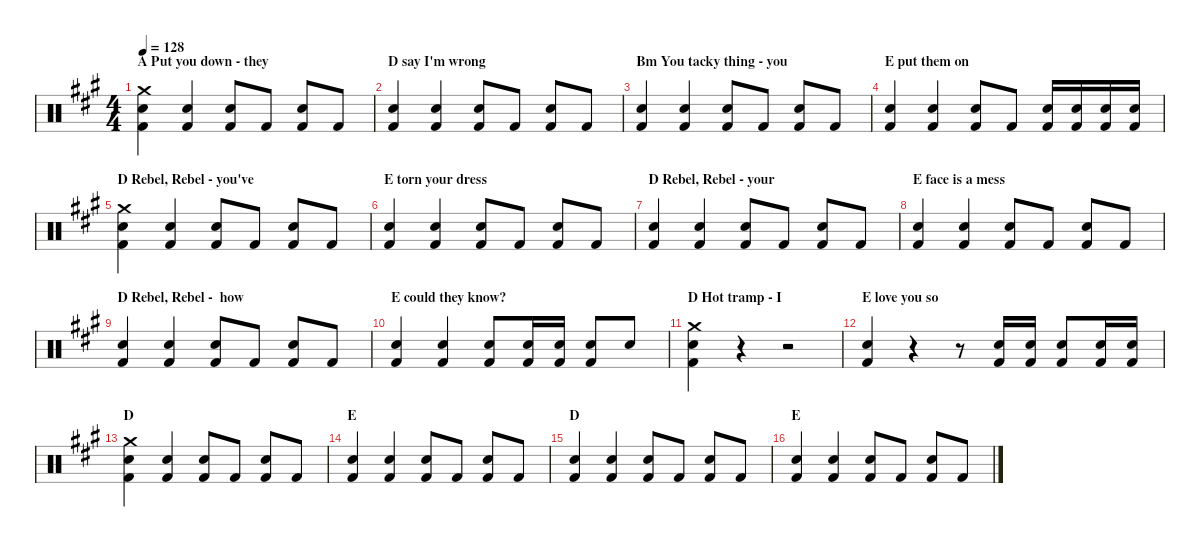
\hideDynamics
\bracketExtendMode nobrackets
\singleTrackTrackNamePolicy hidden
\multiTrackTrackNamePolicy hidden
\firstSystemTrackNameMode fullname
\firstSystemTrackNameOrientation horizontal
\otherSystemsTrackNameOrientation horizontal
\track ("Drumkit" "Drums") {instrument percussion}
\staff {score}
\articulation defaults
\ts (4 4)
\section ("" "A Put you down - they")
\tempo 128
\clef neutral
\ks a
("Crash medium (hit)"{acc forcenatural} "Snare (hit) 2"{acc forcenatural} "Kick (hit) 2"{acc forcenatural}).4{dy f beam Down} ("Snare (hit) 2"{acc forcenatural} "Kick (hit) 2"{acc forcenatural}).4{beam Up} ("Snare (hit) 2"{acc forcenatural} "Kick (hit) 2"{acc forcenatural}).8{beam Up} "Kick (hit) 2"{acc forcenatural}.8{beam Up} ("Snare (hit) 2"{acc forcenatural} "Kick (hit) 2"{acc forcenatural}).8{beam Up} "Kick (hit) 2"{acc forcenatural}.8{beam Up} |
\section ("" "D say I'm wrong")
("Snare (hit) 2"{acc forcenatural} "Kick (hit) 2"{acc forcenatural}).4{beam Up} ("Snare (hit) 2"{acc forcenatural} "Kick (hit) 2"{acc forcenatural}).4{beam Up} ("Snare (hit) 2"{acc forcenatural} "Kick (hit) 2"{acc forcenatural}).8{beam Up} "Kick (hit) 2"{acc forcenatural}.8{beam Up} ("Snare (hit) 2"{acc forcenatural} "Kick (hit) 2"{acc forcenatural}).8{beam Up} "Kick (hit) 2"{acc forcenatural}.8{beam Up} |
\section ("" "Bm You tacky thing - you")
("Snare (hit) 2"{acc forcenatural} "Kick (hit) 2"{acc forcenatural}).4{beam Up} ("Snare (hit) 2"{acc forcenatural} "Kick (hit) 2"{acc forcenatural}).4{beam Up} ("Snare (hit) 2"{acc forcenatural} "Kick (hit) 2"{acc forcenatural}).8{beam Up} "Kick (hit) 2"{acc forcenatural}.8{beam Up} ("Snare (hit) 2"{acc forcenatural} "Kick (hit) 2"{acc forcenatural}).8{beam Up} "Kick (hit) 2"{acc forcenatural}.8{beam Up} |
\section ("" "E put them on")
("Snare (hit) 2"{acc forcenatural} "Kick (hit) 2"{acc forcenatural}).4{beam Up} ("Snare (hit) 2"{acc forcenatural} "Kick (hit) 2"{acc forcenatural}).4{beam Up} ("Snare (hit) 2"{acc forcenatural} "Kick (hit) 2"{acc forcenatural}).8{beam Up} "Kick (hit) 2"{acc forcenatural}.8{beam Up} ("Snare (hit) 2"{acc forcenatural} "Kick (hit) 2"{acc forcenatural}).16{beam Up} ("Snare (hit) 2"{acc forcenatural} "Kick (hit) 2"{acc forcenatural}).16{beam Up} ("Snare (hit) 2"{acc forcenatural} "Kick (hit) 2"{acc forcenatural}).16{beam Up} ("Snare (hit) 2"{acc forcenatural} "Kick (hit) 2"{acc forcenatural}).16{beam Up} |
\section ("" "D Rebel, Rebel - you've")
("Crash medium (hit)"{acc forcenatural} "Snare (hit) 2"{acc forcenatural} "Kick (hit) 2"{acc forcenatural}).4{beam Down} ("Snare (hit) 2"{acc forcenatural} "Kick (hit) 2"{acc forcenatural}).4{beam Up} ("Snare (hit) 2"{acc forcenatural} "Kick (hit) 2"{acc forcenatural}).8{beam Up} "Kick (hit) 2"{acc forcenatural}.8{beam Up} ("Snare (hit) 2"{acc forcenatural} "Kick (hit) 2"{acc forcenatural}).8{beam Up} "Kick (hit) 2"{acc forcenatural}.8{beam Up} |
\section ("" "E torn your dress")
("Snare (hit) 2"{acc forcenatural} "Kick (hit) 2"{acc forcenatural}).4{beam Up} ("Snare (hit) 2"{acc forcenatural} "Kick (hit) 2"{acc forcenatural}).4{beam Up} ("Snare (hit) 2"{acc forcenatural} "Kick (hit) 2"{acc forcenatural}).8{beam Up} "Kick (hit) 2"{acc forcenatural}.8{beam Up} ("Snare (hit) 2"{acc forcenatural} "Kick (hit) 2"{acc forcenatural}).8{beam Up} "Kick (hit) 2"{acc forcenatural}.8{beam Up} |
\section ("" "D Rebel, Rebel - your")
("Snare (hit) 2"{acc forcenatural} "Kick (hit) 2"{acc forcenatural}).4{beam Up} ("Snare (hit) 2"{acc forcenatural} "Kick (hit) 2"{acc forcenatural}).4{beam Up} ("Snare (hit) 2"{acc forcenatural} "Kick (hit) 2"{acc forcenatural}).8{beam Up} "Kick (hit) 2"{acc forcenatural}.8{beam Up} ("Snare (hit) 2"{acc forcenatural} "Kick (hit) 2"{acc forcenatural}).8{beam Up} "Kick (hit) 2"{acc forcenatural}.8{beam Up} |
\section ("" "E face is a mess")
("Snare (hit) 2"{acc forcenatural} "Kick (hit) 2"{acc forcenatural}).4{beam Up} ("Snare (hit) 2"{acc forcenatural} "Kick (hit) 2"{acc forcenatural}).4{beam Up} ("Snare (hit) 2"{acc forcenatural} "Kick (hit) 2"{acc forcenatural}).8{beam Up} "Kick (hit) 2"{acc forcenatural}.8{beam Up} ("Snare (hit) 2"{acc forcenatural} "Kick (hit) 2"{acc forcenatural}).8{beam Up} "Kick (hit) 2"{acc forcenatural}.8{beam Up} |
\section ("" "D Rebel, Rebel -  how")
("Snare (hit) 2"{acc forcenatural} "Kick (hit) 2"{acc forcenatural}).4{beam Up} ("Snare (hit) 2"{acc forcenatural} "Kick (hit) 2"{acc forcenatural}).4{beam Up} ("Snare (hit) 2"{acc forcenatural} "Kick (hit) 2"{acc forcenatural}).8{beam Up} "Kick (hit) 2"{acc forcenatural}.8{beam Up} ("Snare (hit) 2"{acc forcenatural} "Kick (hit) 2"{acc forcenatural}).8{beam Up} "Kick (hit) 2"{acc forcenatural}.8{beam Up} |
\section ("" "E could they know?")
("Snare (hit) 2"{acc forcenatural} "Kick (hit) 2"{acc forcenatural}).4{beam Up} ("Snare (hit) 2"{acc forcenatural} "Kick (hit) 2"{acc forcenatural}).4{beam Up} ("Snare (hit) 2"{acc forcenatural} "Kick (hit) 2"{acc forcenatural}).8{beam Up} ("Snare (hit) 2"{acc forcenatural} "Kick (hit) 2"{acc forcenatural}).16{beam Up} ("Snare (hit) 2"{acc forcenatural} "Kick (hit) 2"{acc forcenatural}).16{beam Up} ("Snare (hit) 2"{acc forcenatural} "Kick (hit) 2"{acc forcenatural}).8{beam Up} "Snare (hit) 2"{acc forcenatural}.8{beam Up} |
\section ("" "D Hot tramp - I ")
("Snare (hit) 2"{acc forcenatural} "Kick (hit) 2"{acc forcenatural} "Crash medium (hit)"{acc forcenatural}).4{beam Down} r.4{beam Down} r.2{beam Down} |
\section ("" "E love you so")
("Snare (hit) 2"{acc forcenatural} "Kick (hit) 2"{acc forcenatural}).4{beam Up} r.4{beam Up} r.8{beam Up} ("Snare (hit) 2"{acc forcenatural} "Kick (hit) 2"{acc forcenatural}).16{beam Up} ("Snare (hit) 2"{acc forcenatural} "Kick (hit) 2"{acc forcenatural}).16{beam Up} ("Snare (hit) 2"{acc forcenatural} "Kick (hit) 2"{acc forcenatural}).8{beam Up} ("Snare (hit) 2"{acc forcenatural} "Kick (hit) 2"{acc forcenatural}).16{beam Up} ("Snare (hit) 2"{acc forcenatural} "Kick (hit) 2"{acc forcenatural}).16{beam Up} |
\section ("" "D")
("Crash medium (hit)"{acc forcenatural} "Snare (hit) 2"{acc forcenatural} "Kick (hit) 2"{acc forcenatural}).4{beam Down} ("Snare (hit) 2"{acc forcenatural} "Kick (hit) 2"{acc forcenatural}).4{beam Up} ("Snare (hit) 2"{acc forcenatural} "Kick (hit) 2"{acc forcenatural}).8{beam Up} "Kick (hit) 2"{acc forcenatural}.8{beam Up} ("Snare (hit) 2"{acc forcenatural} "Kick (hit) 2"{acc forcenatural}).8{beam Up} "Kick (hit) 2"{acc forcenatural}.8{beam Up} |
\section ("" "E")
("Snare (hit) 2"{acc forcenatural} "Kick (hit) 2"{acc forcenatural}).4{beam Up} ("Snare (hit) 2"{acc forcenatural} "Kick (hit) 2"{acc forcenatural}).4{beam Up} ("Snare (hit) 2"{acc forcenatural} "Kick (hit) 2"{acc forcenatural}).8{beam Up} "Kick (hit) 2"{acc forcenatural}.8{beam Up} ("Snare (hit) 2"{acc forcenatural} "Kick (hit) 2"{acc forcenatural}).8{beam Up} "Kick (hit) 2"{acc forcenatural}.8{beam Up} |
\section ("" "D")
("Snare (hit) 2"{acc forcenatural} "Kick (hit) 2"{acc forcenatural}).4{beam Up} ("Snare (hit) 2"{acc forcenatural} "Kick (hit) 2"{acc forcenatural}).4{beam Up} ("Snare (hit) 2"{acc forcenatural} "Kick (hit) 2"{acc forcenatural}).8{beam Up} "Kick (hit) 2"{acc forcenatural}.8{beam Up} ("Snare (hit) 2"{acc forcenatural} "Kick (hit) 2"{acc forcenatural}).8{beam Up} "Kick (hit) 2"{acc forcenatural}.8{beam Up} |
\section ("" "E")
("Snare (hit) 2"{acc forcenatural} "Kick (hit) 2"{acc forcenatural}).4{beam Up} ("Snare (hit) 2"{acc forcenatural} "Kick (hit) 2"{acc forcenatural}).4{beam Up} ("Snare (hit) 2"{acc forcenatural} "Kick (hit) 2"{acc forcenatural}).8{beam Up} "Kick (hit) 2"{acc forcenatural}.8{beam Up} ("Snare (hit) 2"{acc forcenatural} "Kick (hit) 2"{acc forcenatural}).8{beam Up} "Kick (hit) 2"{acc forcenatural}.8{beam Up}
